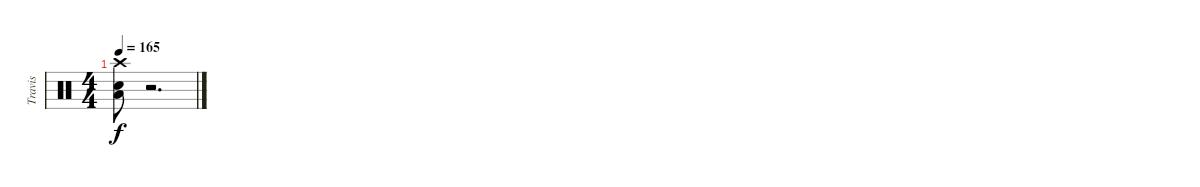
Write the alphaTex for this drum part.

\track ("Travis" "Travis") {instrument percussion}
\staff {score}
\articulation defaults
\ts (4 4)
\tempo 165
\clef neutral
\ks c
("Crash high (hit)" "Electric Snare (hit)" "Low Floor Tom (hit)").8{dy f} r.2{d}
